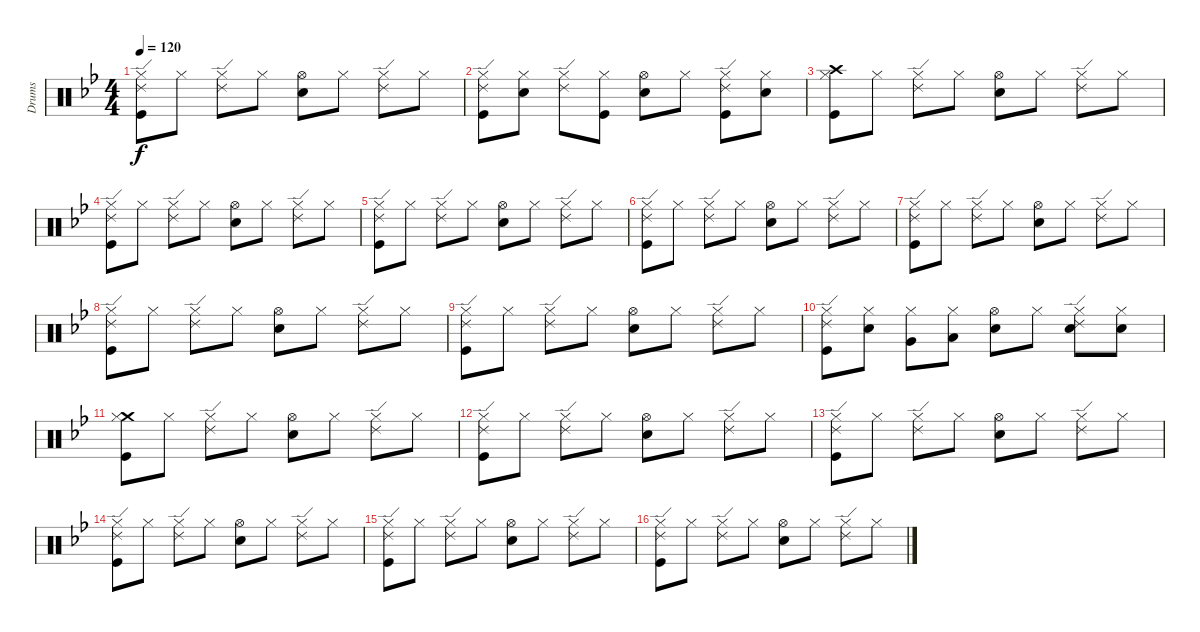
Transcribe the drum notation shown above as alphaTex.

\track ("Drums" "Drums") {instrument percussion}
\staff {score}
\articulation defaults
\ts (4 4)
\tempo 120
\clef neutral
\ks gminor
("Hi-Hat (closed)" "Ride (edge) 2" "Kick (hit)").8{dy f} "Hi-Hat (closed)".8 ("Hi-Hat (closed)" "Ride (edge) 2").8 "Hi-Hat (closed)".8 ("Hi-Hat (open)" "Electric Snare (hit)").8 "Hi-Hat (closed)".8 ("Hi-Hat (closed)" "Ride (edge) 2").8 "Hi-Hat (closed)".8 |
("Hi-Hat (closed)" "Ride (edge) 2" "Kick (hit)").8 ("Hi-Hat (closed)" "Electric Snare (hit)").8 ("Hi-Hat (closed)" "Ride (edge) 2").8 ("Hi-Hat (closed)" "Kick (hit)").8 ("Hi-Hat (open)" "Electric Snare (hit)").8 "Hi-Hat (closed)".8 ("Hi-Hat (closed)" "Ride (edge) 2" "Kick (hit)").8 ("Hi-Hat (closed)" "Electric Snare (hit)").8 |
("Crash high (hit)" "Hi-Hat (closed)" "Kick (hit)").8 "Hi-Hat (closed)".8 ("Hi-Hat (closed)" "Ride (edge) 2").8 "Hi-Hat (closed)".8 ("Hi-Hat (open)" "Electric Snare (hit)").8 "Hi-Hat (closed)".8 ("Hi-Hat (closed)" "Ride (edge) 2").8 "Hi-Hat (closed)".8 |
("Hi-Hat (closed)" "Ride (edge) 2" "Kick (hit)").8 "Hi-Hat (closed)".8 ("Hi-Hat (closed)" "Ride (edge) 2").8 "Hi-Hat (closed)".8 ("Hi-Hat (open)" "Electric Snare (hit)").8 "Hi-Hat (closed)".8 ("Hi-Hat (closed)" "Ride (edge) 2").8 "Hi-Hat (closed)".8 |
("Hi-Hat (closed)" "Ride (edge) 2" "Kick (hit)").8 "Hi-Hat (closed)".8 ("Hi-Hat (closed)" "Ride (edge) 2").8 "Hi-Hat (closed)".8 ("Hi-Hat (open)" "Electric Snare (hit)").8 "Hi-Hat (closed)".8 ("Hi-Hat (closed)" "Ride (edge) 2").8 "Hi-Hat (closed)".8 |
("Hi-Hat (closed)" "Ride (edge) 2" "Kick (hit)").8 "Hi-Hat (closed)".8 ("Hi-Hat (closed)" "Ride (edge) 2").8 "Hi-Hat (closed)".8 ("Hi-Hat (open)" "Electric Snare (hit)").8 "Hi-Hat (closed)".8 ("Hi-Hat (closed)" "Ride (edge) 2").8 "Hi-Hat (closed)".8 |
("Hi-Hat (closed)" "Ride (edge) 2" "Kick (hit)").8 "Hi-Hat (closed)".8 ("Hi-Hat (closed)" "Ride (edge) 2").8 "Hi-Hat (closed)".8 ("Hi-Hat (open)" "Electric Snare (hit)").8 "Hi-Hat (closed)".8 ("Hi-Hat (closed)" "Ride (edge) 2").8 "Hi-Hat (closed)".8 |
("Hi-Hat (closed)" "Ride (edge) 2" "Kick (hit)").8 "Hi-Hat (closed)".8 ("Hi-Hat (closed)" "Ride (edge) 2").8 "Hi-Hat (closed)".8 ("Hi-Hat (open)" "Electric Snare (hit)").8 "Hi-Hat (closed)".8 ("Hi-Hat (closed)" "Ride (edge) 2").8 "Hi-Hat (closed)".8 |
("Hi-Hat (closed)" "Ride (edge) 2" "Kick (hit)").8 "Hi-Hat (closed)".8 ("Hi-Hat (closed)" "Ride (edge) 2").8 "Hi-Hat (closed)".8 ("Hi-Hat (open)" "Electric Snare (hit)").8 "Hi-Hat (closed)".8 ("Hi-Hat (closed)" "Ride (edge) 2").8 "Hi-Hat (closed)".8 |
("Hi-Hat (closed)" "Ride (edge) 2" "Kick (hit)").8 ("Hi-Hat (closed)" "Electric Snare (hit)").8 ("Hi-Hat (closed)" "Very Low Tom (hit)").8 ("Hi-Hat (closed)" "Low Floor Tom (hit)").8 ("Hi-Hat (open)" "Electric Snare (hit)").8 "Hi-Hat (closed)".8 ("Hi-Hat (closed)" "Ride (edge) 2" "Electric Snare (hit)").8 ("Hi-Hat (closed)" "Electric Snare (hit)").8 |
("Crash medium (hit)" "Hi-Hat (closed)" "Kick (hit)").8 "Hi-Hat (closed)".8 ("Hi-Hat (closed)" "Ride (edge) 2").8 "Hi-Hat (closed)".8 ("Hi-Hat (open)" "Electric Snare (hit)").8 "Hi-Hat (closed)".8 ("Hi-Hat (closed)" "Ride (edge) 2").8 "Hi-Hat (closed)".8 |
("Hi-Hat (closed)" "Ride (edge) 2" "Kick (hit)").8 "Hi-Hat (closed)".8 ("Hi-Hat (closed)" "Ride (edge) 2").8 "Hi-Hat (closed)".8 ("Hi-Hat (open)" "Electric Snare (hit)").8 "Hi-Hat (closed)".8 ("Hi-Hat (closed)" "Ride (edge) 2").8 "Hi-Hat (closed)".8 |
("Hi-Hat (closed)" "Ride (edge) 2" "Kick (hit)").8 "Hi-Hat (closed)".8 ("Hi-Hat (closed)" "Ride (edge) 2").8 "Hi-Hat (closed)".8 ("Hi-Hat (open)" "Electric Snare (hit)").8 "Hi-Hat (closed)".8 ("Hi-Hat (closed)" "Ride (edge) 2").8 "Hi-Hat (closed)".8 |
("Hi-Hat (closed)" "Ride (edge) 2" "Kick (hit)").8 "Hi-Hat (closed)".8 ("Hi-Hat (closed)" "Ride (edge) 2").8 "Hi-Hat (closed)".8 ("Hi-Hat (open)" "Electric Snare (hit)").8 "Hi-Hat (closed)".8 ("Hi-Hat (closed)" "Ride (edge) 2").8 "Hi-Hat (closed)".8 |
("Hi-Hat (closed)" "Ride (edge) 2" "Kick (hit)").8 "Hi-Hat (closed)".8 ("Hi-Hat (closed)" "Ride (edge) 2").8 "Hi-Hat (closed)".8 ("Hi-Hat (open)" "Electric Snare (hit)").8 "Hi-Hat (closed)".8 ("Hi-Hat (closed)" "Ride (edge) 2").8 "Hi-Hat (closed)".8 |
("Hi-Hat (closed)" "Ride (edge) 2" "Kick (hit)").8 "Hi-Hat (closed)".8 ("Hi-Hat (closed)" "Ride (edge) 2").8 "Hi-Hat (closed)".8 ("Hi-Hat (open)" "Electric Snare (hit)").8 "Hi-Hat (closed)".8 ("Hi-Hat (closed)" "Ride (edge) 2").8 "Hi-Hat (closed)".8
